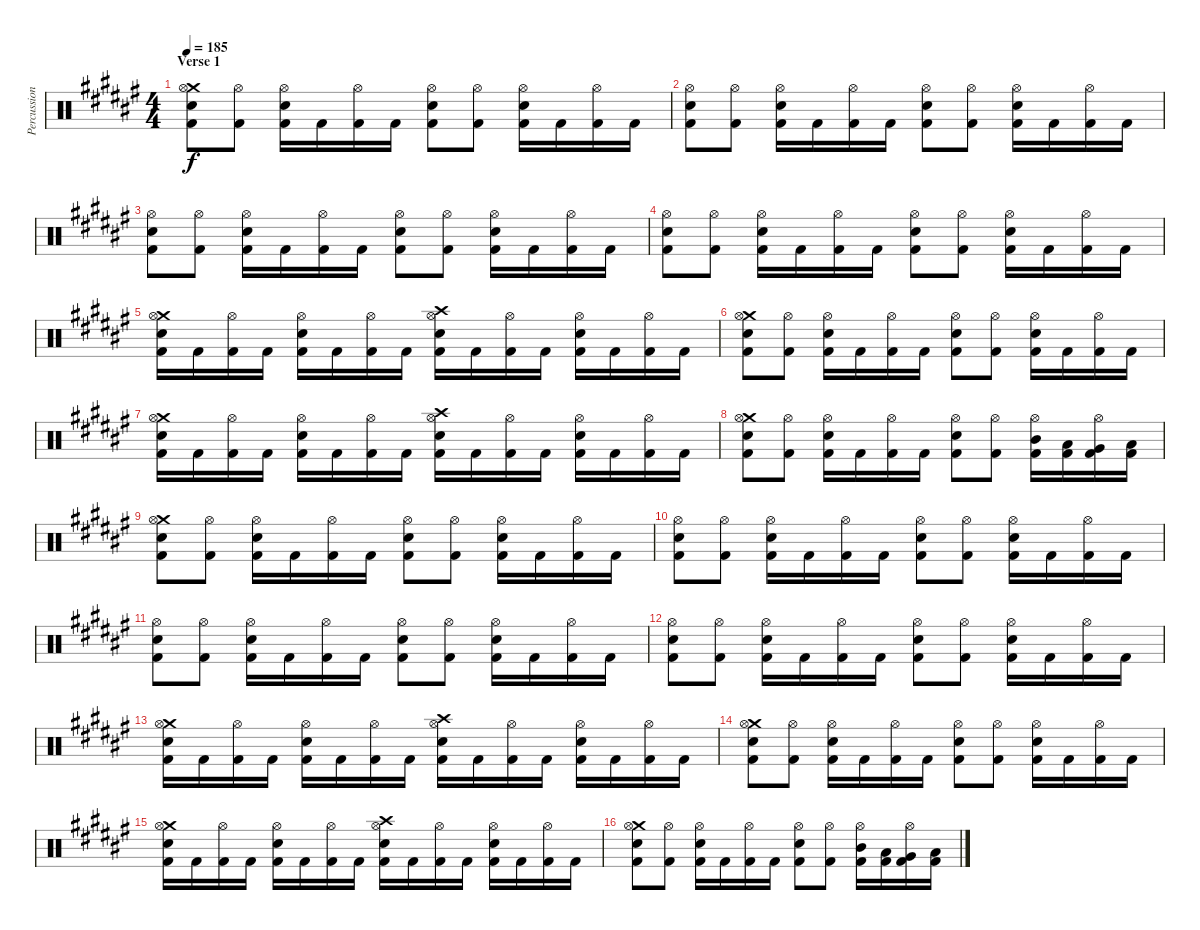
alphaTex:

\track ("Percussion" "Percussion") {instrument percussion}
\staff {score}
\articulation defaults
\ts (4 4)
\section ("" "Verse 1")
\tempo 185
\clef neutral
\ks d#minor
("Crash medium (hit)" "Hi-Hat (open)" "Electric Snare (hit)" "Kick (hit) 2").8{dy f} ("Hi-Hat (open)" "Kick (hit) 2").8 ("Hi-Hat (open)" "Electric Snare (hit)" "Kick (hit) 2").16 "Kick (hit) 2".16 ("Hi-Hat (open)" "Kick (hit) 2").16 "Kick (hit) 2".16 ("Hi-Hat (open)" "Electric Snare (hit)" "Kick (hit) 2").8 ("Hi-Hat (open)" "Kick (hit) 2").8 ("Hi-Hat (open)" "Electric Snare (hit)" "Kick (hit) 2").16 "Kick (hit) 2".16 ("Hi-Hat (open)" "Kick (hit) 2").16 "Kick (hit) 2".16 |
("Hi-Hat (open)" "Electric Snare (hit)" "Kick (hit) 2").8 ("Hi-Hat (open)" "Kick (hit) 2").8 ("Hi-Hat (open)" "Electric Snare (hit)" "Kick (hit) 2").16 "Kick (hit) 2".16 ("Hi-Hat (open)" "Kick (hit) 2").16 "Kick (hit) 2".16 ("Hi-Hat (open)" "Electric Snare (hit)" "Kick (hit) 2").8 ("Hi-Hat (open)" "Kick (hit) 2").8 ("Hi-Hat (open)" "Electric Snare (hit)" "Kick (hit) 2").16 "Kick (hit) 2".16 ("Hi-Hat (open)" "Kick (hit) 2").16 "Kick (hit) 2".16 |
("Hi-Hat (open)" "Electric Snare (hit)" "Kick (hit) 2").8 ("Hi-Hat (open)" "Kick (hit) 2").8 ("Hi-Hat (open)" "Electric Snare (hit)" "Kick (hit) 2").16 "Kick (hit) 2".16 ("Hi-Hat (open)" "Kick (hit) 2").16 "Kick (hit) 2".16 ("Hi-Hat (open)" "Electric Snare (hit)" "Kick (hit) 2").8 ("Hi-Hat (open)" "Kick (hit) 2").8 ("Hi-Hat (open)" "Electric Snare (hit)" "Kick (hit) 2").16 "Kick (hit) 2".16 ("Hi-Hat (open)" "Kick (hit) 2").16 "Kick (hit) 2".16 |
("Hi-Hat (open)" "Electric Snare (hit)" "Kick (hit) 2").8 ("Hi-Hat (open)" "Kick (hit) 2").8 ("Hi-Hat (open)" "Electric Snare (hit)" "Kick (hit) 2").16 "Kick (hit) 2".16 ("Hi-Hat (open)" "Kick (hit) 2").16 "Kick (hit) 2".16 ("Hi-Hat (open)" "Electric Snare (hit)" "Kick (hit) 2").8 ("Hi-Hat (open)" "Kick (hit) 2").8 ("Hi-Hat (open)" "Electric Snare (hit)" "Kick (hit) 2").16 "Kick (hit) 2".16 ("Hi-Hat (open)" "Kick (hit) 2").16 "Kick (hit) 2".16 |
("Crash medium (hit)" "Hi-Hat (open)" "Electric Snare (hit)" "Kick (hit) 2").16 "Kick (hit) 2".16 ("Hi-Hat (open)" "Kick (hit) 2").16 "Kick (hit) 2".16 ("Hi-Hat (open)" "Electric Snare (hit)" "Kick (hit) 2").16 "Kick (hit) 2".16 ("Hi-Hat (open)" "Kick (hit) 2").16 "Kick (hit) 2".16 ("Crash high (hit)" "Hi-Hat (open)" "Electric Snare (hit)" "Kick (hit) 2").16 "Kick (hit) 2".16 ("Hi-Hat (open)" "Kick (hit) 2").16 "Kick (hit) 2".16 ("Hi-Hat (open)" "Electric Snare (hit)" "Kick (hit) 2").16 "Kick (hit) 2".16 ("Hi-Hat (open)" "Kick (hit) 2").16 "Kick (hit) 2".16 |
("Crash medium (hit)" "Hi-Hat (open)" "Electric Snare (hit)" "Kick (hit) 2").8 ("Hi-Hat (open)" "Kick (hit) 2").8 ("Hi-Hat (open)" "Electric Snare (hit)" "Kick (hit) 2").16 "Kick (hit) 2".16 ("Hi-Hat (open)" "Kick (hit) 2").16 "Kick (hit) 2".16 ("Hi-Hat (open)" "Electric Snare (hit)" "Kick (hit) 2").8 ("Hi-Hat (open)" "Kick (hit) 2").8 ("Hi-Hat (open)" "Electric Snare (hit)" "Kick (hit) 2").16 "Kick (hit) 2".16 ("Hi-Hat (open)" "Kick (hit) 2").16 "Kick (hit) 2".16 |
("Crash medium (hit)" "Hi-Hat (open)" "Electric Snare (hit)" "Kick (hit) 2").16 "Kick (hit) 2".16 ("Hi-Hat (open)" "Kick (hit) 2").16 "Kick (hit) 2".16 ("Hi-Hat (open)" "Electric Snare (hit)" "Kick (hit) 2").16 "Kick (hit) 2".16 ("Hi-Hat (open)" "Kick (hit) 2").16 "Kick (hit) 2".16 ("Crash high (hit)" "Hi-Hat (open)" "Electric Snare (hit)" "Kick (hit) 2").16 "Kick (hit) 2".16 ("Hi-Hat (open)" "Kick (hit) 2").16 "Kick (hit) 2".16 ("Hi-Hat (open)" "Electric Snare (hit)" "Kick (hit) 2").16 "Kick (hit) 2".16 ("Hi-Hat (open)" "Kick (hit) 2").16 "Kick (hit) 2".16 |
("Crash medium (hit)" "Hi-Hat (open)" "Electric Snare (hit)" "Kick (hit) 2").8 ("Hi-Hat (open)" "Kick (hit) 2").8 ("Hi-Hat (open)" "Electric Snare (hit)" "Kick (hit) 2").16 "Kick (hit) 2".16 ("Hi-Hat (open)" "Kick (hit) 2").16 "Kick (hit) 2".16 ("Hi-Hat (open)" "Electric Snare (hit)" "Kick (hit) 2").8 ("Hi-Hat (open)" "Kick (hit) 2").8 ("Hi-Hat (open)" "Mid Tom (hit)" "Kick (hit) 2").16 ("Low Tom (hit)" "Kick (hit) 2").16 ("Hi-Hat (open)" "Very Low Tom (hit)" "Kick (hit) 2").16 ("Low Floor Tom (hit)" "Kick (hit) 2").16 |
("Crash medium (hit)" "Hi-Hat (open)" "Electric Snare (hit)" "Kick (hit) 2").8 ("Hi-Hat (open)" "Kick (hit) 2").8 ("Hi-Hat (open)" "Electric Snare (hit)" "Kick (hit) 2").16 "Kick (hit) 2".16 ("Hi-Hat (open)" "Kick (hit) 2").16 "Kick (hit) 2".16 ("Hi-Hat (open)" "Electric Snare (hit)" "Kick (hit) 2").8 ("Hi-Hat (open)" "Kick (hit) 2").8 ("Hi-Hat (open)" "Electric Snare (hit)" "Kick (hit) 2").16 "Kick (hit) 2".16 ("Hi-Hat (open)" "Kick (hit) 2").16 "Kick (hit) 2".16 |
("Hi-Hat (open)" "Electric Snare (hit)" "Kick (hit) 2").8 ("Hi-Hat (open)" "Kick (hit) 2").8 ("Hi-Hat (open)" "Electric Snare (hit)" "Kick (hit) 2").16 "Kick (hit) 2".16 ("Hi-Hat (open)" "Kick (hit) 2").16 "Kick (hit) 2".16 ("Hi-Hat (open)" "Electric Snare (hit)" "Kick (hit) 2").8 ("Hi-Hat (open)" "Kick (hit) 2").8 ("Hi-Hat (open)" "Electric Snare (hit)" "Kick (hit) 2").16 "Kick (hit) 2".16 ("Hi-Hat (open)" "Kick (hit) 2").16 "Kick (hit) 2".16 |
("Hi-Hat (open)" "Electric Snare (hit)" "Kick (hit) 2").8 ("Hi-Hat (open)" "Kick (hit) 2").8 ("Hi-Hat (open)" "Electric Snare (hit)" "Kick (hit) 2").16 "Kick (hit) 2".16 ("Hi-Hat (open)" "Kick (hit) 2").16 "Kick (hit) 2".16 ("Hi-Hat (open)" "Electric Snare (hit)" "Kick (hit) 2").8 ("Hi-Hat (open)" "Kick (hit) 2").8 ("Hi-Hat (open)" "Electric Snare (hit)" "Kick (hit) 2").16 "Kick (hit) 2".16 ("Hi-Hat (open)" "Kick (hit) 2").16 "Kick (hit) 2".16 |
("Hi-Hat (open)" "Electric Snare (hit)" "Kick (hit) 2").8 ("Hi-Hat (open)" "Kick (hit) 2").8 ("Hi-Hat (open)" "Electric Snare (hit)" "Kick (hit) 2").16 "Kick (hit) 2".16 ("Hi-Hat (open)" "Kick (hit) 2").16 "Kick (hit) 2".16 ("Hi-Hat (open)" "Electric Snare (hit)" "Kick (hit) 2").8 ("Hi-Hat (open)" "Kick (hit) 2").8 ("Hi-Hat (open)" "Electric Snare (hit)" "Kick (hit) 2").16 "Kick (hit) 2".16 ("Hi-Hat (open)" "Kick (hit) 2").16 "Kick (hit) 2".16 |
("Crash medium (hit)" "Hi-Hat (open)" "Electric Snare (hit)" "Kick (hit) 2").16 "Kick (hit) 2".16 ("Hi-Hat (open)" "Kick (hit) 2").16 "Kick (hit) 2".16 ("Hi-Hat (open)" "Electric Snare (hit)" "Kick (hit) 2").16 "Kick (hit) 2".16 ("Hi-Hat (open)" "Kick (hit) 2").16 "Kick (hit) 2".16 ("Crash high (hit)" "Hi-Hat (open)" "Electric Snare (hit)" "Kick (hit) 2").16 "Kick (hit) 2".16 ("Hi-Hat (open)" "Kick (hit) 2").16 "Kick (hit) 2".16 ("Hi-Hat (open)" "Electric Snare (hit)" "Kick (hit) 2").16 "Kick (hit) 2".16 ("Hi-Hat (open)" "Kick (hit) 2").16 "Kick (hit) 2".16 |
("Crash medium (hit)" "Hi-Hat (open)" "Electric Snare (hit)" "Kick (hit) 2").8 ("Hi-Hat (open)" "Kick (hit) 2").8 ("Hi-Hat (open)" "Electric Snare (hit)" "Kick (hit) 2").16 "Kick (hit) 2".16 ("Hi-Hat (open)" "Kick (hit) 2").16 "Kick (hit) 2".16 ("Hi-Hat (open)" "Electric Snare (hit)" "Kick (hit) 2").8 ("Hi-Hat (open)" "Kick (hit) 2").8 ("Hi-Hat (open)" "Electric Snare (hit)" "Kick (hit) 2").16 "Kick (hit) 2".16 ("Hi-Hat (open)" "Kick (hit) 2").16 "Kick (hit) 2".16 |
("Crash medium (hit)" "Hi-Hat (open)" "Electric Snare (hit)" "Kick (hit) 2").16 "Kick (hit) 2".16 ("Hi-Hat (open)" "Kick (hit) 2").16 "Kick (hit) 2".16 ("Hi-Hat (open)" "Electric Snare (hit)" "Kick (hit) 2").16 "Kick (hit) 2".16 ("Hi-Hat (open)" "Kick (hit) 2").16 "Kick (hit) 2".16 ("Crash high (hit)" "Hi-Hat (open)" "Electric Snare (hit)" "Kick (hit) 2").16 "Kick (hit) 2".16 ("Hi-Hat (open)" "Kick (hit) 2").16 "Kick (hit) 2".16 ("Hi-Hat (open)" "Electric Snare (hit)" "Kick (hit) 2").16 "Kick (hit) 2".16 ("Hi-Hat (open)" "Kick (hit) 2").16 "Kick (hit) 2".16 |
("Crash medium (hit)" "Hi-Hat (open)" "Electric Snare (hit)" "Kick (hit) 2").8 ("Hi-Hat (open)" "Kick (hit) 2").8 ("Hi-Hat (open)" "Electric Snare (hit)" "Kick (hit) 2").16 "Kick (hit) 2".16 ("Hi-Hat (open)" "Kick (hit) 2").16 "Kick (hit) 2".16 ("Hi-Hat (open)" "Electric Snare (hit)" "Kick (hit) 2").8 ("Hi-Hat (open)" "Kick (hit) 2").8 ("Hi-Hat (open)" "Mid Tom (hit)" "Kick (hit) 2").16 ("Low Tom (hit)" "Kick (hit) 2").16 ("Hi-Hat (open)" "Very Low Tom (hit)" "Kick (hit) 2").16 ("Low Floor Tom (hit)" "Kick (hit) 2").16
